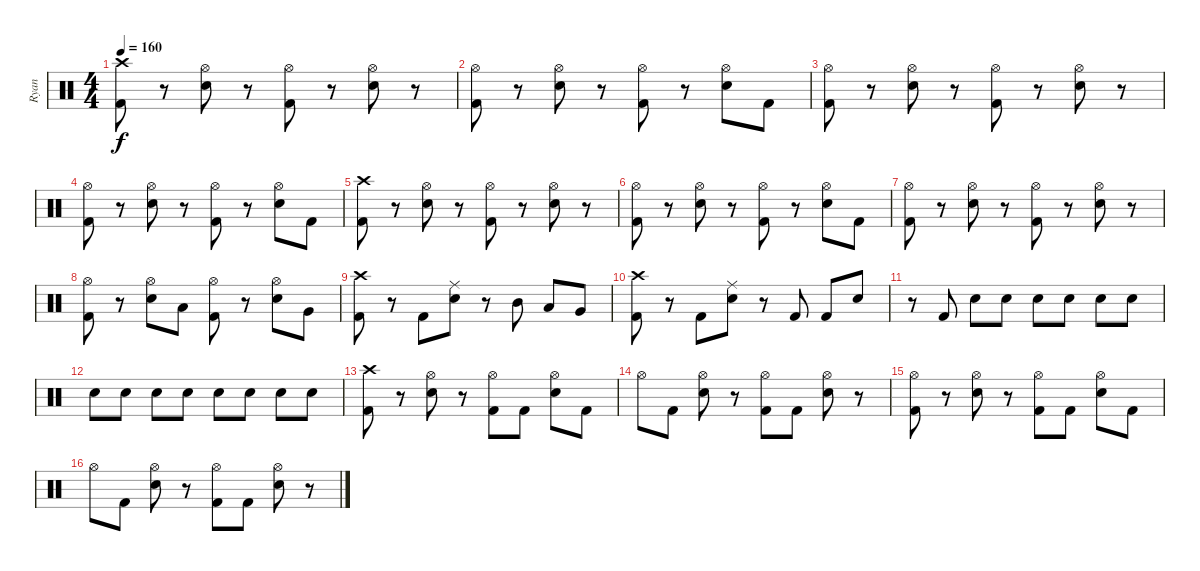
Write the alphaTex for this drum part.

\track ("Ryan" "Ryan") {instrument percussion}
\staff {score}
\articulation defaults
\ts (4 4)
\tempo 160
\clef neutral
\ks c
("Crash high (hit)" "Kick (hit) 2").8{dy f} r.8 ("Hi-Hat (open)" "Snare (hit) 2").8 r.8 ("Hi-Hat (open)" "Kick (hit) 2").8 r.8 ("Hi-Hat (open)" "Snare (hit) 2").8 r.8 |
("Hi-Hat (open)" "Kick (hit) 2").8 r.8 ("Hi-Hat (open)" "Snare (hit) 2").8 r.8 ("Hi-Hat (open)" "Kick (hit) 2").8 r.8 ("Hi-Hat (open)" "Snare (hit) 2").8 "Kick (hit) 2".8 |
("Hi-Hat (open)" "Kick (hit) 2").8 r.8 ("Hi-Hat (open)" "Snare (hit) 2").8 r.8 ("Hi-Hat (open)" "Kick (hit) 2").8 r.8 ("Hi-Hat (open)" "Snare (hit) 2").8 r.8 |
("Hi-Hat (open)" "Kick (hit) 2").8 r.8 ("Hi-Hat (open)" "Snare (hit) 2").8 r.8 ("Hi-Hat (open)" "Kick (hit) 2").8 r.8 ("Hi-Hat (open)" "Snare (hit) 2").8 "Kick (hit) 2".8 |
("Crash high (hit)" "Kick (hit) 2").8 r.8 ("Hi-Hat (open)" "Snare (hit) 2").8 r.8 ("Hi-Hat (open)" "Kick (hit) 2").8 r.8 ("Hi-Hat (open)" "Snare (hit) 2").8 r.8 |
("Hi-Hat (open)" "Kick (hit) 2").8 r.8 ("Hi-Hat (open)" "Snare (hit) 2").8 r.8 ("Hi-Hat (open)" "Kick (hit) 2").8 r.8 ("Hi-Hat (open)" "Snare (hit) 2").8 "Kick (hit) 2".8 |
("Hi-Hat (open)" "Kick (hit) 2").8 r.8 ("Hi-Hat (open)" "Snare (hit) 2").8 r.8 ("Hi-Hat (open)" "Kick (hit) 2").8 r.8 ("Hi-Hat (open)" "Snare (hit) 2").8 r.8 |
("Hi-Hat (open)" "Kick (hit) 2").8 r.8 ("Hi-Hat (open)" "Snare (hit) 2").8 "Low Tom (hit)".8 ("Hi-Hat (open)" "Kick (hit) 2").8 r.8 ("Hi-Hat (open)" "Snare (hit) 2").8 "Very Low Tom (hit)".8 |
("Crash high (hit)" "Kick (hit) 2").8 r.8 "Kick (hit) 2".8 ("Ride (middle)" "Snare (hit) 2").8 r.8 "Mid Tom (hit)".8 "Low Tom (hit)".8 "Very Low Tom (hit)".8 |
("Crash high (hit)" "Kick (hit) 2").8 r.8 "Kick (hit) 2".8 ("Ride (middle)" "Snare (hit) 2").8 r.8 "Kick (hit) 2".8 "Kick (hit) 2".8 "Snare (hit) 2".8 |
r.8 "Kick (hit) 2".8 "Snare (hit) 2".8 "Snare (hit) 2".8 "Snare (hit) 2".8 "Snare (hit) 2".8 "Snare (hit) 2".8 "Snare (hit) 2".8 |
"Snare (hit) 2".8 "Snare (hit) 2".8 "Snare (hit) 2".8 "Snare (hit) 2".8 "Snare (hit) 2".8 "Snare (hit) 2".8 "Snare (hit) 2".8 "Snare (hit) 2".8 |
("Crash high (hit)" "Kick (hit) 2").8 r.8 ("Hi-Hat (open)" "Snare (hit) 2").8 r.8 ("Hi-Hat (open)" "Kick (hit) 2").8 "Kick (hit) 2".8 ("Hi-Hat (open)" "Snare (hit) 2").8 "Kick (hit) 2".8 |
"Hi-Hat (open)".8 "Kick (hit) 2".8 ("Hi-Hat (open)" "Snare (hit) 2").8 r.8 ("Hi-Hat (open)" "Kick (hit) 2").8 "Kick (hit) 2".8 ("Hi-Hat (open)" "Snare (hit) 2").8 r.8 |
("Hi-Hat (open)" "Kick (hit) 2").8 r.8 ("Hi-Hat (open)" "Snare (hit) 2").8 r.8 ("Hi-Hat (open)" "Kick (hit) 2").8 "Kick (hit) 2".8 ("Hi-Hat (open)" "Snare (hit) 2").8 "Kick (hit) 2".8 |
"Hi-Hat (open)".8 "Kick (hit) 2".8 ("Hi-Hat (open)" "Snare (hit) 2").8 r.8 ("Hi-Hat (open)" "Kick (hit) 2").8 "Kick (hit) 2".8 ("Hi-Hat (open)" "Snare (hit) 2").8 r.8
